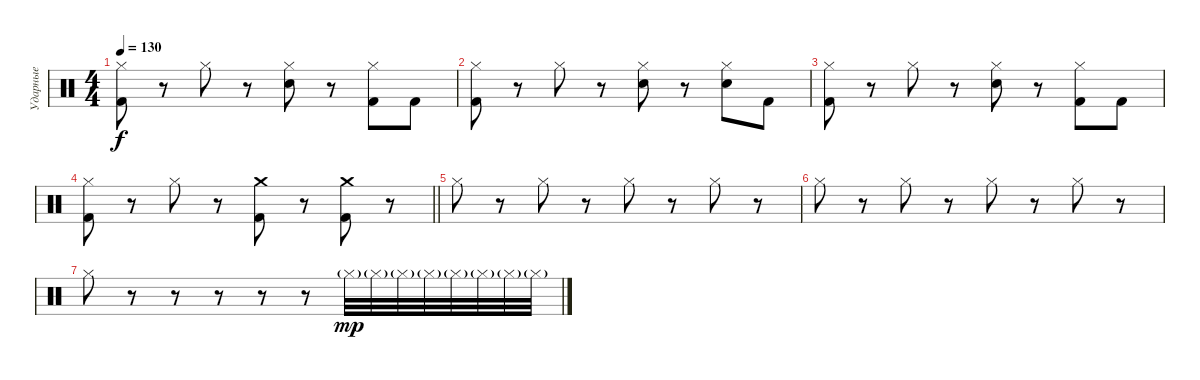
\track ("Ударные" "Ударные") {instrument percussion}
\staff {score}
\articulation defaults
\ts (4 4)
\tempo 130
\clef neutral
\ks c
("Hi-Hat (closed)" "Kick (hit) 2").8{dy f} r.8 "Hi-Hat (closed)".8 r.8 ("Hi-Hat (closed)" "Snare (hit) 2").8 r.8 ("Hi-Hat (closed)" "Kick (hit) 2").8 "Kick (hit) 2".8 |
("Hi-Hat (closed)" "Kick (hit) 2").8 r.8 "Hi-Hat (closed)".8 r.8 ("Hi-Hat (closed)" "Snare (hit) 2").8 r.8 ("Hi-Hat (closed)" "Snare (hit) 2").8 "Kick (hit) 2".8 |
("Hi-Hat (closed)" "Kick (hit) 2").8 r.8 "Hi-Hat (closed)".8 r.8 ("Hi-Hat (closed)" "Snare (hit) 2").8 r.8 ("Hi-Hat (closed)" "Kick (hit) 2").8 "Kick (hit) 2".8 |
\barLineRight lightlight
("Hi-Hat (closed)" "Kick (hit) 2").8 r.8 "Hi-Hat (closed)".8 r.8 ("Crash medium (hit)" "Kick (hit) 2").8 r.8 ("Crash medium (hit)" "Kick (hit) 2").8 r.8 |
"Hi-Hat (closed)".8 r.8 "Hi-Hat (closed)".8 r.8 "Hi-Hat (closed)".8 r.8 "Hi-Hat (closed)".8 r.8 |
"Hi-Hat (closed)".8 r.8 "Hi-Hat (closed)".8 r.8 "Hi-Hat (closed)".8 r.8 "Hi-Hat (closed)".8 r.8 |
"Hi-Hat (closed)".8 r.8 r.8 r.8 r.8 r.8 "Hi-Hat (closed)"{g}.32{dy mp} "Hi-Hat (closed)"{g}.32 "Hi-Hat (closed)"{g}.32 "Hi-Hat (closed)"{g}.32 "Hi-Hat (closed)"{g}.32 "Hi-Hat (closed)"{g}.32 "Hi-Hat (closed)"{g}.32 "Hi-Hat (closed)"{g}.32
